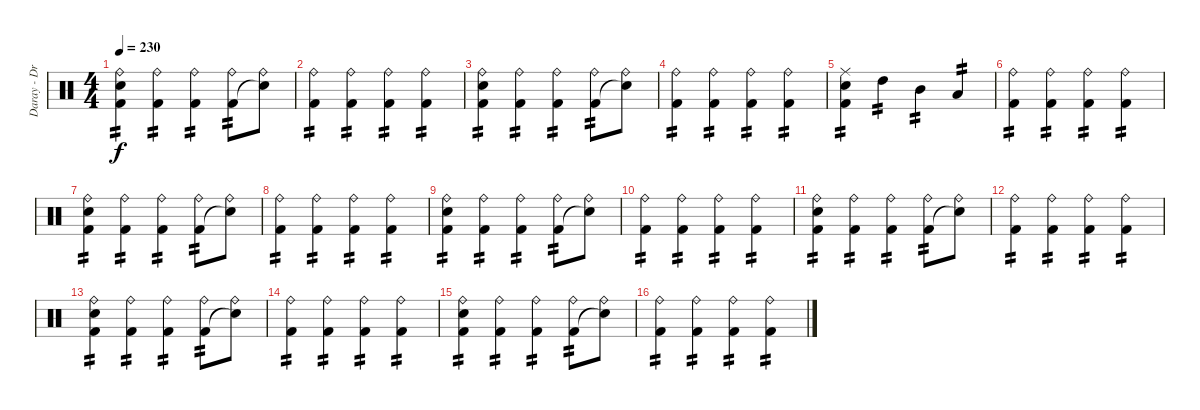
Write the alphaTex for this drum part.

\track ("Daray - Drums" "Daray - Dr") {instrument percussion}
\staff {score}
\articulation defaults
\ts (4 4)
\tempo 230
\clef neutral
\ks c
("Ride (bell)" "Electric Snare (hit)" "Kick (hit) 2").4{tp 2 dy f} ("Ride (bell)" "Kick (hit) 2").4{tp 2} ("Ride (bell)" "Kick (hit) 2").4{tp 2} ("Ride (bell)" "Kick (hit) 2").8{tp 2} ("Ride (bell)" "Snare (hit)"{t}).8 |
("Ride (bell)" "Kick (hit) 2").4{tp 2} ("Ride (bell)" "Kick (hit) 2").4{tp 2} ("Ride (bell)" "Kick (hit) 2").4{tp 2} ("Ride (bell)" "Kick (hit) 2").4{tp 2} |
("Ride (bell)" "Electric Snare (hit)" "Kick (hit) 2").4{tp 2} ("Ride (bell)" "Kick (hit) 2").4{tp 2} ("Ride (bell)" "Kick (hit) 2").4{tp 2} ("Ride (bell)" "Kick (hit) 2").8{tp 2} ("Ride (bell)" "Snare (hit)"{t}).8 |
("Ride (bell)" "Kick (hit) 2").4{tp 2} ("Ride (bell)" "Kick (hit) 2").4{tp 2} ("Ride (bell)" "Kick (hit) 2").4{tp 2} ("Ride (bell)" "Kick (hit) 2").4{tp 2} |
("Ride (middle)" "Electric Snare (hit)" "Kick (hit) 2").4{tp 2} "High Tom (hit)".4{tp 2} "Mid Tom (hit)".4{tp 2} "Low Tom (hit)".4{tp 2} |
("Ride (bell)" "Kick (hit) 2").4{tp 2 volume 6} ("Ride (bell)" "Kick (hit) 2").4{tp 2} ("Ride (bell)" "Kick (hit) 2").4{tp 2} ("Ride (bell)" "Kick (hit) 2").4{tp 2} |
("Ride (bell)" "Electric Snare (hit)" "Kick (hit) 2").4{tp 2} ("Ride (bell)" "Kick (hit) 2").4{tp 2} ("Ride (bell)" "Kick (hit) 2").4{tp 2} ("Ride (bell)" "Kick (hit) 2").8{tp 2} ("Ride (bell)" "Snare (hit)"{t}).8 |
("Ride (bell)" "Kick (hit) 2").4{tp 2} ("Ride (bell)" "Kick (hit) 2").4{tp 2} ("Ride (bell)" "Kick (hit) 2").4{tp 2} ("Ride (bell)" "Kick (hit) 2").4{tp 2} |
("Ride (bell)" "Electric Snare (hit)" "Kick (hit) 2").4{tp 2} ("Ride (bell)" "Kick (hit) 2").4{tp 2} ("Ride (bell)" "Kick (hit) 2").4{tp 2} ("Ride (bell)" "Kick (hit) 2").8{tp 2} ("Ride (bell)" "Snare (hit)"{t}).8 |
("Ride (bell)" "Kick (hit) 2").4{tp 2} ("Ride (bell)" "Kick (hit) 2").4{tp 2} ("Ride (bell)" "Kick (hit) 2").4{tp 2} ("Ride (bell)" "Kick (hit) 2").4{tp 2} |
("Ride (bell)" "Electric Snare (hit)" "Kick (hit) 2").4{tp 2} ("Ride (bell)" "Kick (hit) 2").4{tp 2} ("Ride (bell)" "Kick (hit) 2").4{tp 2} ("Ride (bell)" "Kick (hit) 2").8{tp 2} ("Ride (bell)" "Snare (hit)"{t}).8 |
("Ride (bell)" "Kick (hit) 2").4{tp 2} ("Ride (bell)" "Kick (hit) 2").4{tp 2} ("Ride (bell)" "Kick (hit) 2").4{tp 2} ("Ride (bell)" "Kick (hit) 2").4{tp 2} |
("Ride (bell)" "Electric Snare (hit)" "Kick (hit) 2").4{tp 2} ("Ride (bell)" "Kick (hit) 2").4{tp 2} ("Ride (bell)" "Kick (hit) 2").4{tp 2} ("Ride (bell)" "Kick (hit) 2").8{tp 2} ("Ride (bell)" "Snare (hit)"{t}).8 |
("Ride (bell)" "Kick (hit) 2").4{tp 2 volume 1} ("Ride (bell)" "Kick (hit) 2").4{tp 2} ("Ride (bell)" "Kick (hit) 2").4{tp 2} ("Ride (bell)" "Kick (hit) 2").4{tp 2} |
("Ride (bell)" "Electric Snare (hit)" "Kick (hit) 2").4{tp 2} ("Ride (bell)" "Kick (hit) 2").4{tp 2} ("Ride (bell)" "Kick (hit) 2").4{tp 2} ("Ride (bell)" "Kick (hit) 2").8{tp 2} ("Ride (bell)" "Snare (hit)"{t}).8 |
("Ride (bell)" "Kick (hit) 2").4{tp 2} ("Ride (bell)" "Kick (hit) 2").4{tp 2} ("Ride (bell)" "Kick (hit) 2").4{tp 2} ("Ride (bell)" "Kick (hit) 2").4{tp 2}
